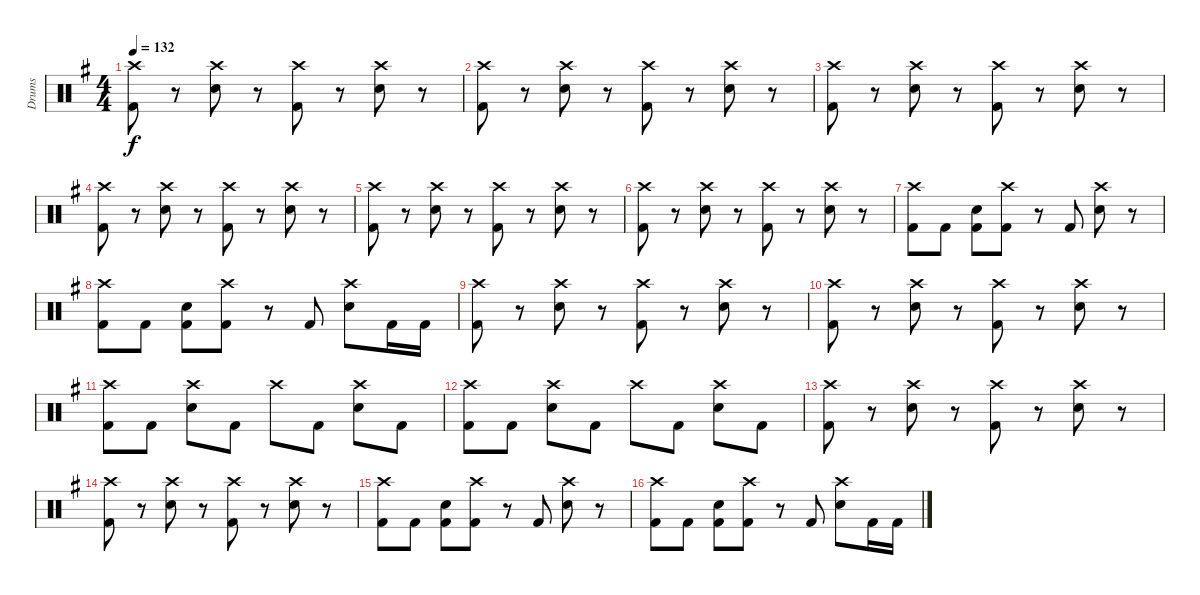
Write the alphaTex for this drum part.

\track ("Drums" "Drums") {instrument percussion}
\staff {score}
\articulation defaults
\ts (4 4)
\tempo 132
\clef neutral
\ks eminor
("Crash high (hit)" "Kick (hit) 2").8{dy f} r.8 ("Crash high (hit)" "Electric Snare (hit)").8 r.8 ("Crash high (hit)" "Kick (hit) 2").8 r.8 ("Crash high (hit)" "Electric Snare (hit)").8 r.8 |
("Crash high (hit)" "Kick (hit) 2").8 r.8 ("Crash high (hit)" "Electric Snare (hit)").8 r.8 ("Crash high (hit)" "Kick (hit) 2").8 r.8 ("Crash high (hit)" "Electric Snare (hit)").8 r.8 |
("Crash high (hit)" "Kick (hit) 2").8 r.8 ("Crash high (hit)" "Electric Snare (hit)").8 r.8 ("Crash high (hit)" "Kick (hit) 2").8 r.8 ("Crash high (hit)" "Electric Snare (hit)").8 r.8 |
("Crash high (hit)" "Kick (hit) 2").8 r.8 ("Crash high (hit)" "Electric Snare (hit)").8 r.8 ("Crash high (hit)" "Kick (hit) 2").8 r.8 ("Crash high (hit)" "Electric Snare (hit)").8 r.8 |
("Crash high (hit)" "Kick (hit) 2").8 r.8 ("Crash high (hit)" "Electric Snare (hit)").8 r.8 ("Crash high (hit)" "Kick (hit) 2").8 r.8 ("Crash high (hit)" "Electric Snare (hit)").8 r.8 |
("Crash high (hit)" "Kick (hit) 2").8 r.8 ("Crash high (hit)" "Electric Snare (hit)").8 r.8 ("Crash high (hit)" "Kick (hit) 2").8 r.8 ("Crash high (hit)" "Electric Snare (hit)").8 r.8 |
("Crash high (hit)" "Kick (hit) 2").8 "Kick (hit) 2".8 ("Electric Snare (hit)" "Kick (hit) 2").8 ("Crash high (hit)" "Kick (hit) 2").8 r.8 "Kick (hit) 2".8 ("Crash high (hit)" "Electric Snare (hit)").8 r.8 |
("Crash high (hit)" "Kick (hit) 2").8 "Kick (hit) 2".8 ("Electric Snare (hit)" "Kick (hit) 2").8 ("Crash high (hit)" "Kick (hit) 2").8 r.8 "Kick (hit) 2".8 ("Crash high (hit)" "Electric Snare (hit)").8 "Kick (hit) 2".16 "Kick (hit) 2".16 |
("Crash high (hit)" "Kick (hit) 2").8 r.8 ("Crash high (hit)" "Electric Snare (hit)").8 r.8 ("Crash high (hit)" "Kick (hit) 2").8 r.8 ("Crash high (hit)" "Electric Snare (hit)").8 r.8 |
("Crash high (hit)" "Kick (hit) 2").8 r.8 ("Crash high (hit)" "Electric Snare (hit)").8 r.8 ("Crash high (hit)" "Kick (hit) 2").8 r.8 ("Crash high (hit)" "Electric Snare (hit)").8 r.8 |
("Crash high (hit)" "Kick (hit) 2").8 "Kick (hit) 2".8 ("Crash high (hit)" "Electric Snare (hit)").8 "Kick (hit) 2".8 "Crash high (hit)".8 "Kick (hit) 2".8 ("Crash high (hit)" "Electric Snare (hit)").8 "Kick (hit) 2".8 |
("Crash high (hit)" "Kick (hit) 2").8 "Kick (hit) 2".8 ("Crash high (hit)" "Electric Snare (hit)").8 "Kick (hit) 2".8 "Crash high (hit)".8 "Kick (hit) 2".8 ("Crash high (hit)" "Electric Snare (hit)").8 "Kick (hit) 2".8 |
("Crash high (hit)" "Kick (hit) 2").8 r.8 ("Crash high (hit)" "Electric Snare (hit)").8 r.8 ("Crash high (hit)" "Kick (hit) 2").8 r.8 ("Crash high (hit)" "Electric Snare (hit)").8 r.8 |
("Crash high (hit)" "Kick (hit) 2").8 r.8 ("Crash high (hit)" "Electric Snare (hit)").8 r.8 ("Crash high (hit)" "Kick (hit) 2").8 r.8 ("Crash high (hit)" "Electric Snare (hit)").8 r.8 |
("Crash high (hit)" "Kick (hit) 2").8 "Kick (hit) 2".8 ("Electric Snare (hit)" "Kick (hit) 2").8 ("Crash high (hit)" "Kick (hit) 2").8 r.8 "Kick (hit) 2".8 ("Crash high (hit)" "Electric Snare (hit)").8 r.8 |
("Crash high (hit)" "Kick (hit) 2").8 "Kick (hit) 2".8 ("Electric Snare (hit)" "Kick (hit) 2").8 ("Crash high (hit)" "Kick (hit) 2").8 r.8 "Kick (hit) 2".8 ("Crash high (hit)" "Electric Snare (hit)").8 "Kick (hit) 2".16 "Kick (hit) 2".16
